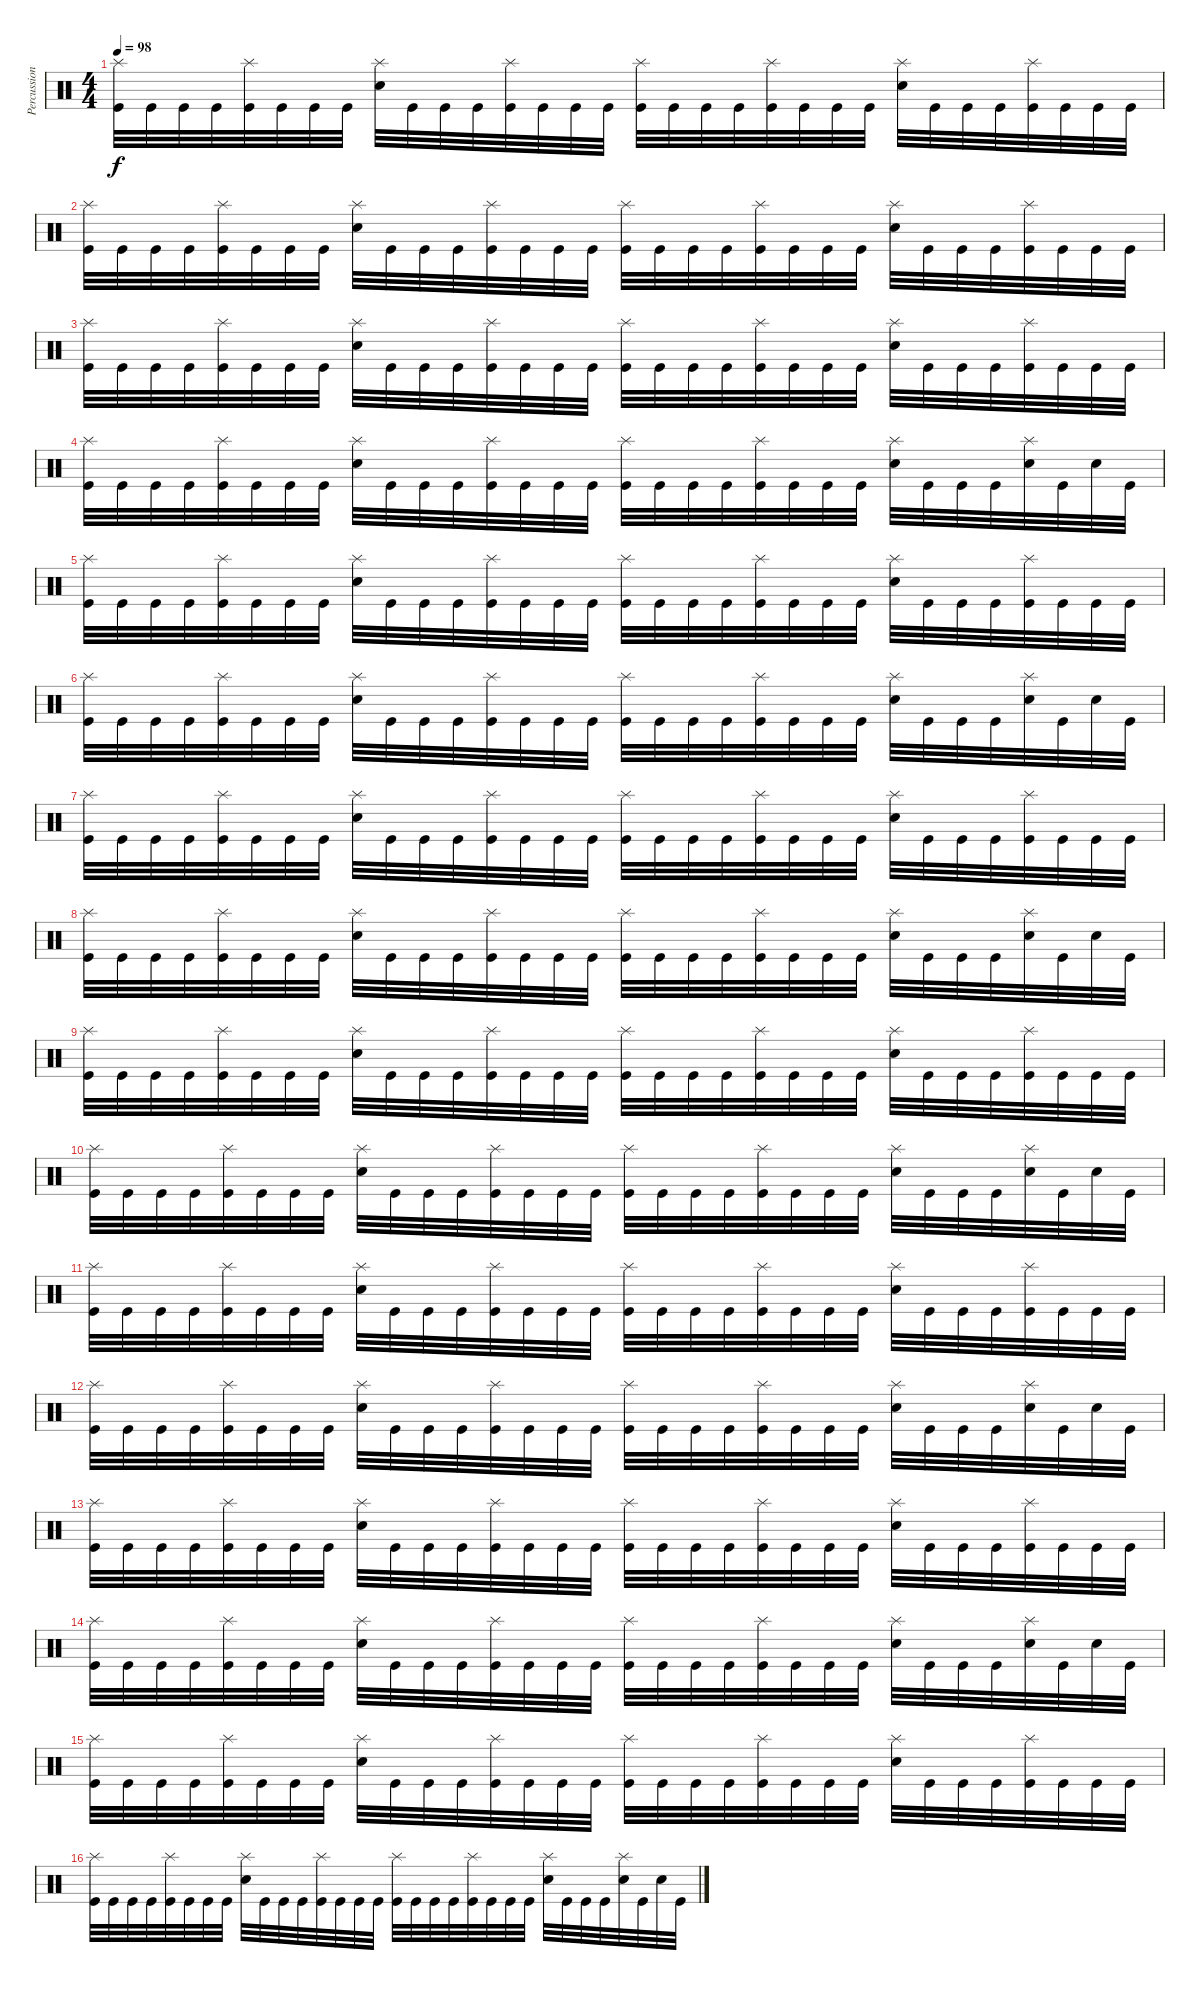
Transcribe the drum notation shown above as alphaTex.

\track ("Percussions" "Percussion") {instrument percussion}
\staff {score}
\articulation defaults
\ts (4 4)
\tempo 98
\clef neutral
\ks c
("Splash (hit)" "Kick (hit)").32{dy f} "Kick (hit)".32 "Kick (hit)".32 "Kick (hit)".32 ("Splash (hit)" "Kick (hit)").32 "Kick (hit)".32 "Kick (hit)".32 "Kick (hit)".32 ("Splash (hit)" "Snare (hit) 2").32 "Kick (hit)".32 "Kick (hit)".32 "Kick (hit)".32 ("Splash (hit)" "Kick (hit)").32 "Kick (hit)".32 "Kick (hit)".32 "Kick (hit)".32 ("Splash (hit)" "Kick (hit)").32 "Kick (hit)".32 "Kick (hit)".32 "Kick (hit)".32 ("Splash (hit)" "Kick (hit)").32 "Kick (hit)".32 "Kick (hit)".32 "Kick (hit)".32 ("Splash (hit)" "Snare (hit) 2").32 "Kick (hit)".32 "Kick (hit)".32 "Kick (hit)".32 ("Splash (hit)" "Kick (hit)").32 "Kick (hit)".32 "Kick (hit)".32 "Kick (hit)".32 |
("Splash (hit)" "Kick (hit)").32 "Kick (hit)".32 "Kick (hit)".32 "Kick (hit)".32 ("Splash (hit)" "Kick (hit)").32 "Kick (hit)".32 "Kick (hit)".32 "Kick (hit)".32 ("Splash (hit)" "Snare (hit) 2").32 "Kick (hit)".32 "Kick (hit)".32 "Kick (hit)".32 ("Splash (hit)" "Kick (hit)").32 "Kick (hit)".32 "Kick (hit)".32 "Kick (hit)".32 ("Splash (hit)" "Kick (hit)").32 "Kick (hit)".32 "Kick (hit)".32 "Kick (hit)".32 ("Splash (hit)" "Kick (hit)").32 "Kick (hit)".32 "Kick (hit)".32 "Kick (hit)".32 ("Splash (hit)" "Snare (hit) 2").32 "Kick (hit)".32 "Kick (hit)".32 "Kick (hit)".32 ("Splash (hit)" "Kick (hit)").32 "Kick (hit)".32 "Kick (hit)".32 "Kick (hit)".32 |
("Splash (hit)" "Kick (hit)").32 "Kick (hit)".32 "Kick (hit)".32 "Kick (hit)".32 ("Splash (hit)" "Kick (hit)").32 "Kick (hit)".32 "Kick (hit)".32 "Kick (hit)".32 ("Splash (hit)" "Snare (hit) 2").32 "Kick (hit)".32 "Kick (hit)".32 "Kick (hit)".32 ("Splash (hit)" "Kick (hit)").32 "Kick (hit)".32 "Kick (hit)".32 "Kick (hit)".32 ("Splash (hit)" "Kick (hit)").32 "Kick (hit)".32 "Kick (hit)".32 "Kick (hit)".32 ("Splash (hit)" "Kick (hit)").32 "Kick (hit)".32 "Kick (hit)".32 "Kick (hit)".32 ("Splash (hit)" "Snare (hit) 2").32 "Kick (hit)".32 "Kick (hit)".32 "Kick (hit)".32 ("Splash (hit)" "Kick (hit)").32 "Kick (hit)".32 "Kick (hit)".32 "Kick (hit)".32 |
("Splash (hit)" "Kick (hit)").32 "Kick (hit)".32 "Kick (hit)".32 "Kick (hit)".32 ("Splash (hit)" "Kick (hit)").32 "Kick (hit)".32 "Kick (hit)".32 "Kick (hit)".32 ("Splash (hit)" "Snare (hit) 2").32 "Kick (hit)".32 "Kick (hit)".32 "Kick (hit)".32 ("Splash (hit)" "Kick (hit)").32 "Kick (hit)".32 "Kick (hit)".32 "Kick (hit)".32 ("Splash (hit)" "Kick (hit)").32 "Kick (hit)".32 "Kick (hit)".32 "Kick (hit)".32 ("Splash (hit)" "Kick (hit)").32 "Kick (hit)".32 "Kick (hit)".32 "Kick (hit)".32 ("Splash (hit)" "Snare (hit) 2").32 "Kick (hit)".32 "Kick (hit)".32 "Kick (hit)".32 ("Splash (hit)" "Snare (hit) 2").32 "Kick (hit)".32 "Snare (hit) 2".32 "Kick (hit)".32 |
("Splash (hit)" "Kick (hit)").32 "Kick (hit)".32 "Kick (hit)".32 "Kick (hit)".32 ("Splash (hit)" "Kick (hit)").32 "Kick (hit)".32 "Kick (hit)".32 "Kick (hit)".32 ("Splash (hit)" "Snare (hit) 2").32 "Kick (hit)".32 "Kick (hit)".32 "Kick (hit)".32 ("Splash (hit)" "Kick (hit)").32 "Kick (hit)".32 "Kick (hit)".32 "Kick (hit)".32 ("Splash (hit)" "Kick (hit)").32 "Kick (hit)".32 "Kick (hit)".32 "Kick (hit)".32 ("Splash (hit)" "Kick (hit)").32 "Kick (hit)".32 "Kick (hit)".32 "Kick (hit)".32 ("Splash (hit)" "Snare (hit) 2").32 "Kick (hit)".32 "Kick (hit)".32 "Kick (hit)".32 ("Splash (hit)" "Kick (hit)").32 "Kick (hit)".32 "Kick (hit)".32 "Kick (hit)".32 |
("Splash (hit)" "Kick (hit)").32 "Kick (hit)".32 "Kick (hit)".32 "Kick (hit)".32 ("Splash (hit)" "Kick (hit)").32 "Kick (hit)".32 "Kick (hit)".32 "Kick (hit)".32 ("Splash (hit)" "Snare (hit) 2").32 "Kick (hit)".32 "Kick (hit)".32 "Kick (hit)".32 ("Splash (hit)" "Kick (hit)").32 "Kick (hit)".32 "Kick (hit)".32 "Kick (hit)".32 ("Splash (hit)" "Kick (hit)").32 "Kick (hit)".32 "Kick (hit)".32 "Kick (hit)".32 ("Splash (hit)" "Kick (hit)").32 "Kick (hit)".32 "Kick (hit)".32 "Kick (hit)".32 ("Splash (hit)" "Snare (hit) 2").32 "Kick (hit)".32 "Kick (hit)".32 "Kick (hit)".32 ("Splash (hit)" "Snare (hit) 2").32 "Kick (hit)".32 "Snare (hit) 2".32 "Kick (hit)".32 |
("Splash (hit)" "Kick (hit)").32 "Kick (hit)".32 "Kick (hit)".32 "Kick (hit)".32 ("Splash (hit)" "Kick (hit)").32 "Kick (hit)".32 "Kick (hit)".32 "Kick (hit)".32 ("Splash (hit)" "Snare (hit) 2").32 "Kick (hit)".32 "Kick (hit)".32 "Kick (hit)".32 ("Splash (hit)" "Kick (hit)").32 "Kick (hit)".32 "Kick (hit)".32 "Kick (hit)".32 ("Splash (hit)" "Kick (hit)").32 "Kick (hit)".32 "Kick (hit)".32 "Kick (hit)".32 ("Splash (hit)" "Kick (hit)").32 "Kick (hit)".32 "Kick (hit)".32 "Kick (hit)".32 ("Splash (hit)" "Snare (hit) 2").32 "Kick (hit)".32 "Kick (hit)".32 "Kick (hit)".32 ("Splash (hit)" "Kick (hit)").32 "Kick (hit)".32 "Kick (hit)".32 "Kick (hit)".32 |
("Splash (hit)" "Kick (hit)").32 "Kick (hit)".32 "Kick (hit)".32 "Kick (hit)".32 ("Splash (hit)" "Kick (hit)").32 "Kick (hit)".32 "Kick (hit)".32 "Kick (hit)".32 ("Splash (hit)" "Snare (hit) 2").32 "Kick (hit)".32 "Kick (hit)".32 "Kick (hit)".32 ("Splash (hit)" "Kick (hit)").32 "Kick (hit)".32 "Kick (hit)".32 "Kick (hit)".32 ("Splash (hit)" "Kick (hit)").32 "Kick (hit)".32 "Kick (hit)".32 "Kick (hit)".32 ("Splash (hit)" "Kick (hit)").32 "Kick (hit)".32 "Kick (hit)".32 "Kick (hit)".32 ("Splash (hit)" "Snare (hit) 2").32 "Kick (hit)".32 "Kick (hit)".32 "Kick (hit)".32 ("Splash (hit)" "Snare (hit) 2").32 "Kick (hit)".32 "Snare (hit) 2".32 "Kick (hit)".32 |
("Splash (hit)" "Kick (hit)").32 "Kick (hit)".32 "Kick (hit)".32 "Kick (hit)".32 ("Splash (hit)" "Kick (hit)").32 "Kick (hit)".32 "Kick (hit)".32 "Kick (hit)".32 ("Splash (hit)" "Snare (hit) 2").32 "Kick (hit)".32 "Kick (hit)".32 "Kick (hit)".32 ("Splash (hit)" "Kick (hit)").32 "Kick (hit)".32 "Kick (hit)".32 "Kick (hit)".32 ("Splash (hit)" "Kick (hit)").32 "Kick (hit)".32 "Kick (hit)".32 "Kick (hit)".32 ("Splash (hit)" "Kick (hit)").32 "Kick (hit)".32 "Kick (hit)".32 "Kick (hit)".32 ("Splash (hit)" "Snare (hit) 2").32 "Kick (hit)".32 "Kick (hit)".32 "Kick (hit)".32 ("Splash (hit)" "Kick (hit)").32 "Kick (hit)".32 "Kick (hit)".32 "Kick (hit)".32 |
("Splash (hit)" "Kick (hit)").32 "Kick (hit)".32 "Kick (hit)".32 "Kick (hit)".32 ("Splash (hit)" "Kick (hit)").32 "Kick (hit)".32 "Kick (hit)".32 "Kick (hit)".32 ("Splash (hit)" "Snare (hit) 2").32 "Kick (hit)".32 "Kick (hit)".32 "Kick (hit)".32 ("Splash (hit)" "Kick (hit)").32 "Kick (hit)".32 "Kick (hit)".32 "Kick (hit)".32 ("Splash (hit)" "Kick (hit)").32 "Kick (hit)".32 "Kick (hit)".32 "Kick (hit)".32 ("Splash (hit)" "Kick (hit)").32 "Kick (hit)".32 "Kick (hit)".32 "Kick (hit)".32 ("Splash (hit)" "Snare (hit) 2").32 "Kick (hit)".32 "Kick (hit)".32 "Kick (hit)".32 ("Splash (hit)" "Snare (hit) 2").32 "Kick (hit)".32 "Snare (hit) 2".32 "Kick (hit)".32 |
("Splash (hit)" "Kick (hit)").32 "Kick (hit)".32 "Kick (hit)".32 "Kick (hit)".32 ("Splash (hit)" "Kick (hit)").32 "Kick (hit)".32 "Kick (hit)".32 "Kick (hit)".32 ("Splash (hit)" "Snare (hit) 2").32 "Kick (hit)".32 "Kick (hit)".32 "Kick (hit)".32 ("Splash (hit)" "Kick (hit)").32 "Kick (hit)".32 "Kick (hit)".32 "Kick (hit)".32 ("Splash (hit)" "Kick (hit)").32 "Kick (hit)".32 "Kick (hit)".32 "Kick (hit)".32 ("Splash (hit)" "Kick (hit)").32 "Kick (hit)".32 "Kick (hit)".32 "Kick (hit)".32 ("Splash (hit)" "Snare (hit) 2").32 "Kick (hit)".32 "Kick (hit)".32 "Kick (hit)".32 ("Splash (hit)" "Kick (hit)").32 "Kick (hit)".32 "Kick (hit)".32 "Kick (hit)".32 |
("Splash (hit)" "Kick (hit)").32 "Kick (hit)".32 "Kick (hit)".32 "Kick (hit)".32 ("Splash (hit)" "Kick (hit)").32 "Kick (hit)".32 "Kick (hit)".32 "Kick (hit)".32 ("Splash (hit)" "Snare (hit) 2").32 "Kick (hit)".32 "Kick (hit)".32 "Kick (hit)".32 ("Splash (hit)" "Kick (hit)").32 "Kick (hit)".32 "Kick (hit)".32 "Kick (hit)".32 ("Splash (hit)" "Kick (hit)").32 "Kick (hit)".32 "Kick (hit)".32 "Kick (hit)".32 ("Splash (hit)" "Kick (hit)").32 "Kick (hit)".32 "Kick (hit)".32 "Kick (hit)".32 ("Splash (hit)" "Snare (hit) 2").32 "Kick (hit)".32 "Kick (hit)".32 "Kick (hit)".32 ("Splash (hit)" "Snare (hit) 2").32 "Kick (hit)".32 "Snare (hit) 2".32 "Kick (hit)".32 |
("Splash (hit)" "Kick (hit)").32 "Kick (hit)".32 "Kick (hit)".32 "Kick (hit)".32 ("Splash (hit)" "Kick (hit)").32 "Kick (hit)".32 "Kick (hit)".32 "Kick (hit)".32 ("Splash (hit)" "Snare (hit) 2").32 "Kick (hit)".32 "Kick (hit)".32 "Kick (hit)".32 ("Splash (hit)" "Kick (hit)").32 "Kick (hit)".32 "Kick (hit)".32 "Kick (hit)".32 ("Splash (hit)" "Kick (hit)").32 "Kick (hit)".32 "Kick (hit)".32 "Kick (hit)".32 ("Splash (hit)" "Kick (hit)").32 "Kick (hit)".32 "Kick (hit)".32 "Kick (hit)".32 ("Splash (hit)" "Snare (hit) 2").32 "Kick (hit)".32 "Kick (hit)".32 "Kick (hit)".32 ("Splash (hit)" "Kick (hit)").32 "Kick (hit)".32 "Kick (hit)".32 "Kick (hit)".32 |
("Splash (hit)" "Kick (hit)").32 "Kick (hit)".32 "Kick (hit)".32 "Kick (hit)".32 ("Splash (hit)" "Kick (hit)").32 "Kick (hit)".32 "Kick (hit)".32 "Kick (hit)".32 ("Splash (hit)" "Snare (hit) 2").32 "Kick (hit)".32 "Kick (hit)".32 "Kick (hit)".32 ("Splash (hit)" "Kick (hit)").32 "Kick (hit)".32 "Kick (hit)".32 "Kick (hit)".32 ("Splash (hit)" "Kick (hit)").32 "Kick (hit)".32 "Kick (hit)".32 "Kick (hit)".32 ("Splash (hit)" "Kick (hit)").32 "Kick (hit)".32 "Kick (hit)".32 "Kick (hit)".32 ("Splash (hit)" "Snare (hit) 2").32 "Kick (hit)".32 "Kick (hit)".32 "Kick (hit)".32 ("Splash (hit)" "Snare (hit) 2").32 "Kick (hit)".32 "Snare (hit) 2".32 "Kick (hit)".32 |
("Splash (hit)" "Kick (hit)").32 "Kick (hit)".32 "Kick (hit)".32 "Kick (hit)".32 ("Splash (hit)" "Kick (hit)").32 "Kick (hit)".32 "Kick (hit)".32 "Kick (hit)".32 ("Splash (hit)" "Snare (hit) 2").32 "Kick (hit)".32 "Kick (hit)".32 "Kick (hit)".32 ("Splash (hit)" "Kick (hit)").32 "Kick (hit)".32 "Kick (hit)".32 "Kick (hit)".32 ("Splash (hit)" "Kick (hit)").32 "Kick (hit)".32 "Kick (hit)".32 "Kick (hit)".32 ("Splash (hit)" "Kick (hit)").32 "Kick (hit)".32 "Kick (hit)".32 "Kick (hit)".32 ("Splash (hit)" "Snare (hit) 2").32 "Kick (hit)".32 "Kick (hit)".32 "Kick (hit)".32 ("Splash (hit)" "Kick (hit)").32 "Kick (hit)".32 "Kick (hit)".32 "Kick (hit)".32 |
("Splash (hit)" "Kick (hit)").32 "Kick (hit)".32 "Kick (hit)".32 "Kick (hit)".32 ("Splash (hit)" "Kick (hit)").32 "Kick (hit)".32 "Kick (hit)".32 "Kick (hit)".32 ("Splash (hit)" "Snare (hit) 2").32 "Kick (hit)".32 "Kick (hit)".32 "Kick (hit)".32 ("Splash (hit)" "Kick (hit)").32 "Kick (hit)".32 "Kick (hit)".32 "Kick (hit)".32 ("Splash (hit)" "Kick (hit)").32 "Kick (hit)".32 "Kick (hit)".32 "Kick (hit)".32 ("Splash (hit)" "Kick (hit)").32 "Kick (hit)".32 "Kick (hit)".32 "Kick (hit)".32 ("Splash (hit)" "Snare (hit) 2").32 "Kick (hit)".32 "Kick (hit)".32 "Kick (hit)".32 ("Splash (hit)" "Snare (hit) 2").32 "Kick (hit)".32 "Snare (hit) 2".32 "Kick (hit)".32
